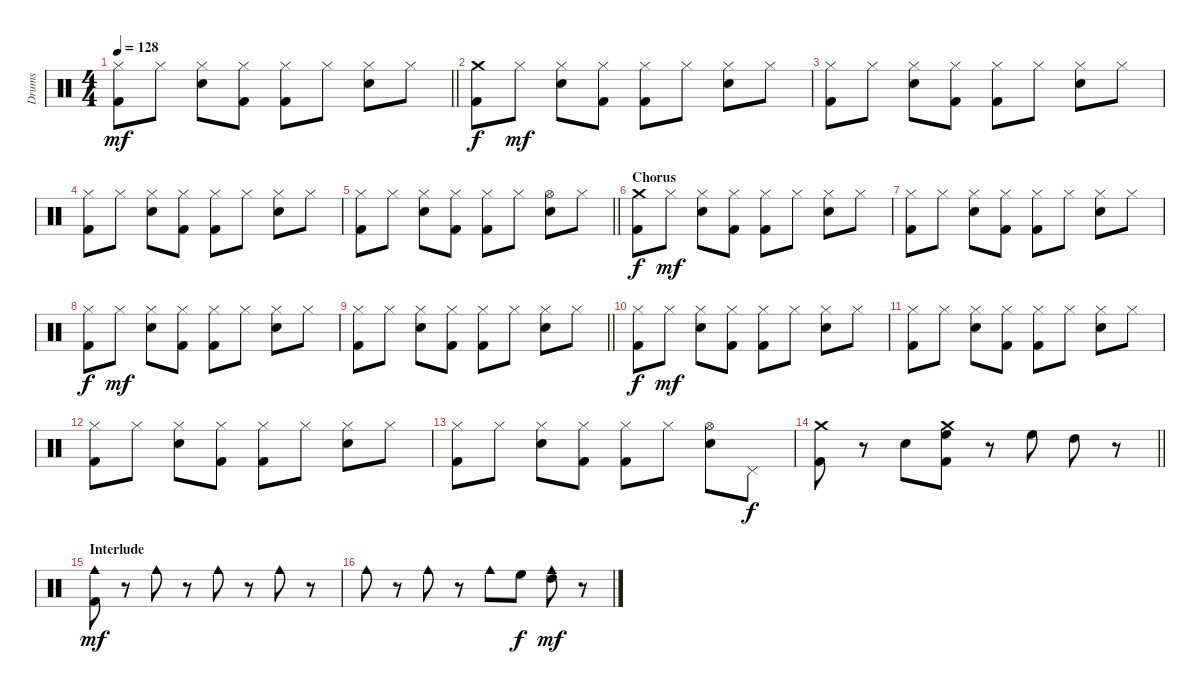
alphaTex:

\track ("Drums" "Drums") {instrument percussion}
\staff {score}
\articulation defaults
\ts (4 4)
\tempo 128
\clef neutral
\barLineRight lightlight
\ks c
("Hi-Hat (closed)" "Kick (hit) 2").8{dy mf} "Hi-Hat (closed)".8 ("Hi-Hat (closed)" "Snare (hit) 2").8 ("Hi-Hat (closed)" "Kick (hit) 2").8 ("Hi-Hat (closed)" "Kick (hit) 2").8 "Hi-Hat (closed)".8 ("Hi-Hat (closed)" "Snare (hit) 2").8 "Hi-Hat (closed)".8 |
("Crash medium (hit)" "Kick (hit) 2").8{dy f} "Hi-Hat (closed)".8{dy mf} ("Hi-Hat (closed)" "Snare (hit) 2").8 ("Hi-Hat (closed)" "Kick (hit) 2").8 ("Hi-Hat (closed)" "Kick (hit) 2").8 "Hi-Hat (closed)".8 ("Hi-Hat (closed)" "Snare (hit) 2").8 "Hi-Hat (closed)".8 |
("Hi-Hat (closed)" "Kick (hit) 2").8 "Hi-Hat (closed)".8 ("Hi-Hat (closed)" "Snare (hit) 2").8 ("Hi-Hat (closed)" "Kick (hit) 2").8 ("Hi-Hat (closed)" "Kick (hit) 2").8 "Hi-Hat (closed)".8 ("Hi-Hat (closed)" "Snare (hit) 2").8 "Hi-Hat (closed)".8 |
("Hi-Hat (closed)" "Kick (hit) 2").8 "Hi-Hat (closed)".8 ("Hi-Hat (closed)" "Snare (hit) 2").8 ("Hi-Hat (closed)" "Kick (hit) 2").8 ("Hi-Hat (closed)" "Kick (hit) 2").8 "Hi-Hat (closed)".8 ("Hi-Hat (closed)" "Snare (hit) 2").8 "Hi-Hat (closed)".8 |
\barLineRight lightlight
("Hi-Hat (closed)" "Kick (hit) 2").8 "Hi-Hat (closed)".8 ("Hi-Hat (closed)" "Snare (hit) 2").8 ("Hi-Hat (closed)" "Kick (hit) 2").8 ("Hi-Hat (closed)" "Kick (hit) 2").8 "Hi-Hat (closed)".8 ("Hi-Hat (open)" "Snare (hit) 2").8 "Hi-Hat (closed)".8 |
\section ("" "Chorus")
("Crash medium (hit)" "Kick (hit) 2").8{dy f} "Hi-Hat (closed)".8{dy mf} ("Hi-Hat (closed)" "Snare (hit) 2").8 ("Hi-Hat (closed)" "Kick (hit) 2").8 ("Hi-Hat (closed)" "Kick (hit) 2").8 "Hi-Hat (closed)".8 ("Hi-Hat (closed)" "Snare (hit) 2").8 "Hi-Hat (closed)".8 |
("Hi-Hat (closed)" "Kick (hit) 2").8 "Hi-Hat (closed)".8 ("Hi-Hat (closed)" "Snare (hit) 2").8 ("Hi-Hat (closed)" "Kick (hit) 2").8 ("Hi-Hat (closed)" "Kick (hit) 2").8 "Hi-Hat (closed)".8 ("Hi-Hat (closed)" "Snare (hit) 2").8 "Hi-Hat (closed)".8 |
("Hi-Hat (closed)" "Kick (hit) 2").8{dy f} "Hi-Hat (closed)".8{dy mf} ("Hi-Hat (closed)" "Snare (hit) 2").8 ("Hi-Hat (closed)" "Kick (hit) 2").8 ("Hi-Hat (closed)" "Kick (hit) 2").8 "Hi-Hat (closed)".8 ("Hi-Hat (closed)" "Snare (hit) 2").8 "Hi-Hat (closed)".8 |
\barLineRight lightlight
("Hi-Hat (closed)" "Kick (hit) 2").8 "Hi-Hat (closed)".8 ("Hi-Hat (closed)" "Snare (hit) 2").8 ("Hi-Hat (closed)" "Kick (hit) 2").8 ("Hi-Hat (closed)" "Kick (hit) 2").8 "Hi-Hat (closed)".8 ("Hi-Hat (closed)" "Snare (hit) 2").8 "Hi-Hat (closed)".8 |
("Hi-Hat (closed)" "Kick (hit) 2").8{dy f} "Hi-Hat (closed)".8{dy mf} ("Hi-Hat (closed)" "Snare (hit) 2").8 ("Hi-Hat (closed)" "Kick (hit) 2").8 ("Hi-Hat (closed)" "Kick (hit) 2").8 "Hi-Hat (closed)".8 ("Hi-Hat (closed)" "Snare (hit) 2").8 "Hi-Hat (closed)".8 |
("Hi-Hat (closed)" "Kick (hit) 2").8 "Hi-Hat (closed)".8 ("Hi-Hat (closed)" "Snare (hit) 2").8 ("Hi-Hat (closed)" "Kick (hit) 2").8 ("Hi-Hat (closed)" "Kick (hit) 2").8 "Hi-Hat (closed)".8 ("Hi-Hat (closed)" "Snare (hit) 2").8 "Hi-Hat (closed)".8 |
("Hi-Hat (closed)" "Kick (hit) 2").8 "Hi-Hat (closed)".8 ("Hi-Hat (closed)" "Snare (hit) 2").8 ("Hi-Hat (closed)" "Kick (hit) 2").8 ("Hi-Hat (closed)" "Kick (hit) 2").8 "Hi-Hat (closed)".8 ("Hi-Hat (closed)" "Snare (hit) 2").8 "Hi-Hat (closed)".8 |
("Hi-Hat (closed)" "Kick (hit) 2").8 "Hi-Hat (closed)".8 ("Hi-Hat (closed)" "Snare (hit) 2").8 ("Hi-Hat (closed)" "Kick (hit) 2").8 ("Hi-Hat (closed)" "Kick (hit) 2").8 "Hi-Hat (closed)".8 ("Hi-Hat (open)" "Snare (hit) 2").8 "Pedal Hi-Hat (hit)".8{dy f} |
\barLineRight lightlight
("Crash medium (hit)" "Kick (hit) 2").8 r.8 "Snare (hit) 2".8 ("Crash medium (hit)" "High Floor Tom (hit)" "Kick (hit) 2").8 r.8 "High Floor Tom (hit)".8 "High Tom (hit)".8 r.8 |
\section ("" "Interlude")
("Cowbell medium (hit)" "Kick (hit) 2").8{dy mf} r.8 "Cowbell medium (hit)".8 r.8 "Cowbell medium (hit)".8 r.8 "Cowbell medium (hit)".8 r.8 |
"Cowbell medium (hit)".8 r.8 "Cowbell medium (hit)".8 r.8 "Cowbell medium (hit)".8 "High Floor Tom (hit)".8{dy f} ("Cowbell medium (hit)" "High Tom (hit)").8{dy mf} r.8
